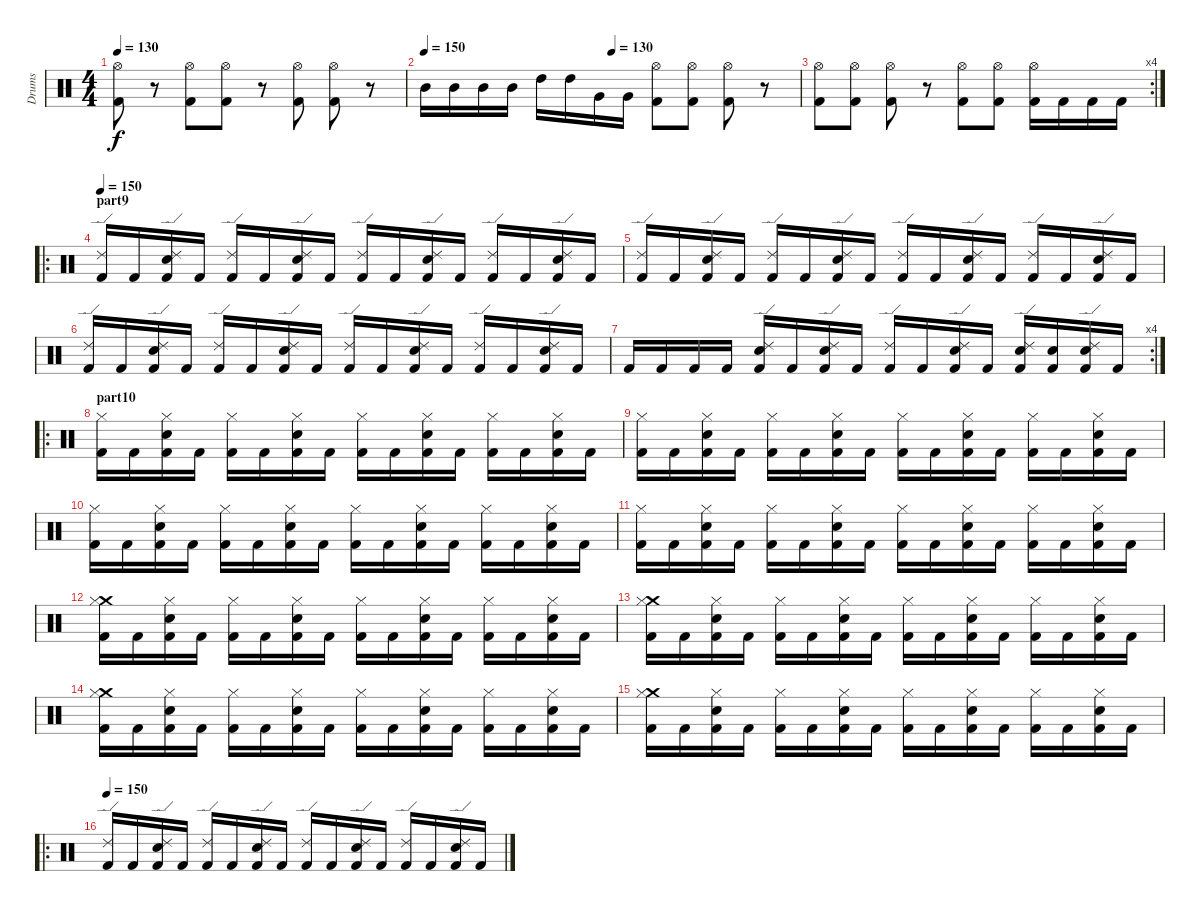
\track ("Drums" "Drums") {instrument percussion}
\staff {score}
\articulation defaults
\ts (4 4)
\tempo 130
\clef neutral
\ks c
("Kick (hit) 2" "Hi-Hat (open)").8{dy f} r.8 ("Kick (hit) 2" "Hi-Hat (open)").8 ("Kick (hit) 2" "Hi-Hat (open)").8 r.8 ("Kick (hit) 2" "Hi-Hat (open)").8 ("Kick (hit) 2" "Hi-Hat (open)").8 r.8 |
\tempo 150
\tempo (130 0.5)
"Mid Tom (hit)".16 "Mid Tom (hit)".16 "Mid Tom (hit)".16 "Mid Tom (hit)".16 "High Tom (hit)".16 "High Tom (hit)".16 "Very Low Tom (hit)".16 "Very Low Tom (hit)".16 ("Kick (hit) 2" "Hi-Hat (open)").8 ("Kick (hit) 2" "Hi-Hat (open)").8 ("Kick (hit) 2" "Hi-Hat (open)").8 r.8 |
\rc 4
("Kick (hit) 2" "Hi-Hat (open)").8 ("Kick (hit) 2" "Hi-Hat (open)").8 ("Kick (hit) 2" "Hi-Hat (open)").8 r.8 ("Kick (hit) 2" "Hi-Hat (open)").8 ("Kick (hit) 2" "Hi-Hat (open)").8 ("Kick (hit) 2" "Hi-Hat (open)").16 "Kick (hit) 2".16 "Kick (hit) 2".16 "Kick (hit) 2".16 |
\ro
\section ("" "part9")
\tempo 150
("Kick (hit) 2" "Ride (edge) 2").16 "Kick (hit) 2".16 ("Kick (hit) 2" "Snare (hit) 2" "Ride (edge) 2").16 "Kick (hit) 2".16 ("Kick (hit) 2" "Ride (edge) 2").16 "Kick (hit) 2".16 ("Kick (hit) 2" "Snare (hit) 2" "Ride (edge) 2").16 "Kick (hit) 2".16 ("Kick (hit) 2" "Ride (edge) 2").16 "Kick (hit) 2".16 ("Kick (hit) 2" "Snare (hit) 2" "Ride (edge) 2").16 "Kick (hit) 2".16 ("Kick (hit) 2" "Ride (edge) 2").16 "Kick (hit) 2".16 ("Kick (hit) 2" "Snare (hit) 2" "Ride (edge) 2").16 "Kick (hit) 2".16 |
("Kick (hit) 2" "Ride (edge) 2").16 "Kick (hit) 2".16 ("Kick (hit) 2" "Snare (hit) 2" "Ride (edge) 2").16 "Kick (hit) 2".16 ("Kick (hit) 2" "Ride (edge) 2").16 "Kick (hit) 2".16 ("Kick (hit) 2" "Snare (hit) 2" "Ride (edge) 2").16 "Kick (hit) 2".16 ("Kick (hit) 2" "Ride (edge) 2").16 "Kick (hit) 2".16 ("Kick (hit) 2" "Snare (hit) 2" "Ride (edge) 2").16 "Kick (hit) 2".16 ("Kick (hit) 2" "Ride (edge) 2").16 "Kick (hit) 2".16 ("Kick (hit) 2" "Snare (hit) 2" "Ride (edge) 2").16 "Kick (hit) 2".16 |
("Kick (hit) 2" "Ride (edge) 2").16 "Kick (hit) 2".16 ("Kick (hit) 2" "Snare (hit) 2" "Ride (edge) 2").16 "Kick (hit) 2".16 ("Kick (hit) 2" "Ride (edge) 2").16 "Kick (hit) 2".16 ("Kick (hit) 2" "Snare (hit) 2" "Ride (edge) 2").16 "Kick (hit) 2".16 ("Kick (hit) 2" "Ride (edge) 2").16 "Kick (hit) 2".16 ("Kick (hit) 2" "Snare (hit) 2" "Ride (edge) 2").16 "Kick (hit) 2".16 ("Kick (hit) 2" "Ride (edge) 2").16 "Kick (hit) 2".16 ("Kick (hit) 2" "Snare (hit) 2" "Ride (edge) 2").16 "Kick (hit) 2".16 |
\rc 4 "Kick (hit) 2".16 "Kick (hit) 2".16 "Kick (hit) 2".16 "Kick (hit) 2".16
("Kick (hit) 2" "Snare (hit) 2" "Ride (edge) 2").16 "Kick (hit) 2".16 ("Kick (hit) 2" "Snare (hit) 2" "Ride (edge) 2").16 "Kick (hit) 2".16 ("Kick (hit) 2" "Ride (edge) 2").16 "Kick (hit) 2".16 ("Kick (hit) 2" "Snare (hit) 2" "Ride (edge) 2").16 "Kick (hit) 2".16 ("Kick (hit) 2" "Snare (hit) 2" "Ride (edge) 2").16 ("Kick (hit) 2" "Snare (hit) 2").16 ("Kick (hit) 2" "Snare (hit) 2" "Ride (edge) 2").16 "Kick (hit) 2".16 |
\ro
\section ("" "part10")
("Kick (hit) 2" "Hi-Hat (closed)").16 "Kick (hit) 2".16 ("Kick (hit) 2" "Snare (hit) 2" "Hi-Hat (closed)").16 "Kick (hit) 2".16 ("Kick (hit) 2" "Hi-Hat (closed)").16 "Kick (hit) 2".16 ("Kick (hit) 2" "Snare (hit) 2" "Hi-Hat (closed)").16 "Kick (hit) 2".16 ("Kick (hit) 2" "Hi-Hat (closed)").16 "Kick (hit) 2".16 ("Kick (hit) 2" "Snare (hit) 2" "Hi-Hat (closed)").16 "Kick (hit) 2".16 ("Kick (hit) 2" "Hi-Hat (closed)").16 "Kick (hit) 2".16 ("Kick (hit) 2" "Snare (hit) 2" "Hi-Hat (closed)").16 "Kick (hit) 2".16 |
("Kick (hit) 2" "Hi-Hat (closed)").16 "Kick (hit) 2".16 ("Kick (hit) 2" "Snare (hit) 2" "Hi-Hat (closed)").16 "Kick (hit) 2".16 ("Kick (hit) 2" "Hi-Hat (closed)").16 "Kick (hit) 2".16 ("Kick (hit) 2" "Snare (hit) 2" "Hi-Hat (closed)").16 "Kick (hit) 2".16 ("Kick (hit) 2" "Hi-Hat (closed)").16 "Kick (hit) 2".16 ("Kick (hit) 2" "Snare (hit) 2" "Hi-Hat (closed)").16 "Kick (hit) 2".16 ("Kick (hit) 2" "Hi-Hat (closed)").16 "Kick (hit) 2".16 ("Kick (hit) 2" "Snare (hit) 2" "Hi-Hat (closed)").16 "Kick (hit) 2".16 |
("Kick (hit) 2" "Hi-Hat (closed)").16 "Kick (hit) 2".16 ("Kick (hit) 2" "Snare (hit) 2" "Hi-Hat (closed)").16 "Kick (hit) 2".16 ("Kick (hit) 2" "Hi-Hat (closed)").16 "Kick (hit) 2".16 ("Kick (hit) 2" "Snare (hit) 2" "Hi-Hat (closed)").16 "Kick (hit) 2".16 ("Kick (hit) 2" "Hi-Hat (closed)").16 "Kick (hit) 2".16 ("Kick (hit) 2" "Snare (hit) 2" "Hi-Hat (closed)").16 "Kick (hit) 2".16 ("Kick (hit) 2" "Hi-Hat (closed)").16 "Kick (hit) 2".16 ("Kick (hit) 2" "Snare (hit) 2" "Hi-Hat (closed)").16 "Kick (hit) 2".16 |
("Kick (hit) 2" "Hi-Hat (closed)").16 "Kick (hit) 2".16 ("Kick (hit) 2" "Snare (hit) 2" "Hi-Hat (closed)").16 "Kick (hit) 2".16 ("Kick (hit) 2" "Hi-Hat (closed)").16 "Kick (hit) 2".16 ("Kick (hit) 2" "Snare (hit) 2" "Hi-Hat (closed)").16 "Kick (hit) 2".16 ("Kick (hit) 2" "Hi-Hat (closed)").16 "Kick (hit) 2".16 ("Kick (hit) 2" "Snare (hit) 2" "Hi-Hat (closed)").16 "Kick (hit) 2".16 ("Kick (hit) 2" "Hi-Hat (closed)").16 "Kick (hit) 2".16 ("Kick (hit) 2" "Snare (hit) 2" "Hi-Hat (closed)").16 "Kick (hit) 2".16 |
("Kick (hit) 2" "Crash medium (hit)" "Hi-Hat (closed)").16 "Kick (hit) 2".16 ("Kick (hit) 2" "Snare (hit) 2" "Hi-Hat (closed)").16 "Kick (hit) 2".16 ("Kick (hit) 2" "Hi-Hat (closed)").16 "Kick (hit) 2".16 ("Kick (hit) 2" "Snare (hit) 2" "Hi-Hat (closed)").16 "Kick (hit) 2".16 ("Kick (hit) 2" "Hi-Hat (closed)").16 "Kick (hit) 2".16 ("Kick (hit) 2" "Snare (hit) 2" "Hi-Hat (closed)").16 "Kick (hit) 2".16 ("Kick (hit) 2" "Hi-Hat (closed)").16 "Kick (hit) 2".16 ("Kick (hit) 2" "Snare (hit) 2" "Hi-Hat (closed)").16 "Kick (hit) 2".16 |
("Kick (hit) 2" "Crash medium (hit)" "Hi-Hat (closed)").16 "Kick (hit) 2".16 ("Kick (hit) 2" "Snare (hit) 2" "Hi-Hat (closed)").16 "Kick (hit) 2".16 ("Kick (hit) 2" "Hi-Hat (closed)").16 "Kick (hit) 2".16 ("Kick (hit) 2" "Snare (hit) 2" "Hi-Hat (closed)").16 "Kick (hit) 2".16 ("Kick (hit) 2" "Hi-Hat (closed)").16 "Kick (hit) 2".16 ("Kick (hit) 2" "Snare (hit) 2" "Hi-Hat (closed)").16 "Kick (hit) 2".16 ("Kick (hit) 2" "Hi-Hat (closed)").16 "Kick (hit) 2".16 ("Kick (hit) 2" "Snare (hit) 2" "Hi-Hat (closed)").16 "Kick (hit) 2".16 |
("Kick (hit) 2" "Crash medium (hit)" "Hi-Hat (closed)").16 "Kick (hit) 2".16 ("Kick (hit) 2" "Snare (hit) 2" "Hi-Hat (closed)").16 "Kick (hit) 2".16 ("Kick (hit) 2" "Hi-Hat (closed)").16 "Kick (hit) 2".16 ("Kick (hit) 2" "Snare (hit) 2" "Hi-Hat (closed)").16 "Kick (hit) 2".16 ("Kick (hit) 2" "Hi-Hat (closed)").16 "Kick (hit) 2".16 ("Kick (hit) 2" "Snare (hit) 2" "Hi-Hat (closed)").16 "Kick (hit) 2".16 ("Kick (hit) 2" "Hi-Hat (closed)").16 "Kick (hit) 2".16 ("Kick (hit) 2" "Snare (hit) 2" "Hi-Hat (closed)").16 "Kick (hit) 2".16 |
("Kick (hit) 2" "Crash medium (hit)" "Hi-Hat (closed)").16 "Kick (hit) 2".16 ("Kick (hit) 2" "Snare (hit) 2" "Hi-Hat (closed)").16 "Kick (hit) 2".16 ("Kick (hit) 2" "Hi-Hat (closed)").16 "Kick (hit) 2".16 ("Kick (hit) 2" "Snare (hit) 2" "Hi-Hat (closed)").16 "Kick (hit) 2".16 ("Kick (hit) 2" "Hi-Hat (closed)").16 "Kick (hit) 2".16 ("Kick (hit) 2" "Snare (hit) 2" "Hi-Hat (closed)").16 "Kick (hit) 2".16 ("Kick (hit) 2" "Hi-Hat (closed)").16 "Kick (hit) 2".16 ("Kick (hit) 2" "Snare (hit) 2" "Hi-Hat (closed)").16 "Kick (hit) 2".16 |
\ro
\tempo 150
("Kick (hit) 2" "Ride (edge) 2").16 "Kick (hit) 2".16 ("Kick (hit) 2" "Snare (hit) 2" "Ride (edge) 2").16 "Kick (hit) 2".16 ("Kick (hit) 2" "Ride (edge) 2").16 "Kick (hit) 2".16 ("Kick (hit) 2" "Snare (hit) 2" "Ride (edge) 2").16 "Kick (hit) 2".16 ("Kick (hit) 2" "Ride (edge) 2").16 "Kick (hit) 2".16 ("Kick (hit) 2" "Snare (hit) 2" "Ride (edge) 2").16 "Kick (hit) 2".16 ("Kick (hit) 2" "Ride (edge) 2").16 "Kick (hit) 2".16 ("Kick (hit) 2" "Snare (hit) 2" "Ride (edge) 2").16 "Kick (hit) 2".16
